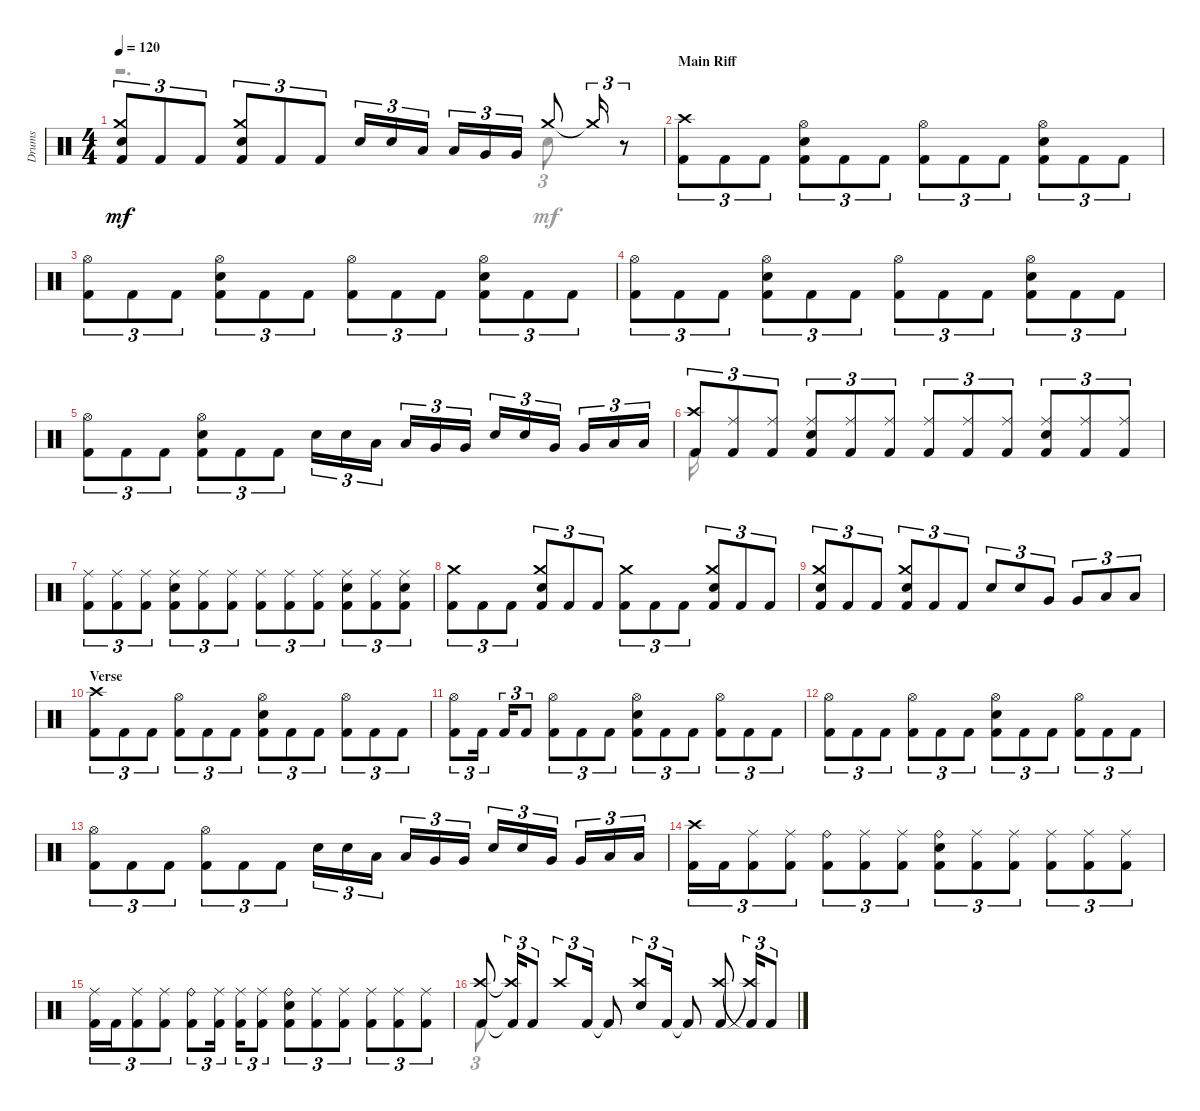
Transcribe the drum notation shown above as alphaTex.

\track ("Drums" "Drums") {instrument percussion}
\staff {score}
\articulation defaults
\voice
\ts (4 4)
\tempo 120
\clef neutral
\ks aminor
("Kick (hit) 2" "Crash medium (hit)" "Snare (hit) 2").8{tu (3 2) dy mf} "Kick (hit) 2".8{tu (3 2)} "Kick (hit) 2".8{tu (3 2)} ("Kick (hit) 2" "Snare (hit) 2" "Crash medium (hit)").8{tu (3 2)} "Kick (hit) 2".8{tu (3 2)} "Kick (hit) 2".8{tu (3 2)} "Snare (hit) 2".16{tu (3 2)} "Snare (hit) 2".16{tu (3 2)} "Low Tom (hit)".16{tu (3 2)} "Low Tom (hit)".16{tu (3 2)} "Very Low Tom (hit)".16{tu (3 2)} "Very Low Tom (hit)".16{tu (3 2)} "Crash medium (hit)".8 "Crash medium (hit)"{t}.16{tu (3 2)} r.8{tu (3 2)} |
\section ("" "Main Riff")
("Kick (hit) 2" "Crash high (hit)").8{tu (3 2)} "Kick (hit) 2".8{tu (3 2)} "Kick (hit) 2".8{tu (3 2)} ("Hi-Hat (open)" "Snare (hit) 2" "Kick (hit) 2").8{tu (3 2)} "Kick (hit) 2".8{tu (3 2)} "Kick (hit) 2".8{tu (3 2)} ("Hi-Hat (open)" "Kick (hit) 2").8{tu (3 2)} "Kick (hit) 2".8{tu (3 2)} "Kick (hit) 2".8{tu (3 2)} ("Kick (hit) 2" "Snare (hit) 2" "Hi-Hat (open)").8{tu (3 2)} "Kick (hit) 2".8{tu (3 2)} "Kick (hit) 2".8{tu (3 2)} |
("Kick (hit) 2" "Hi-Hat (open)").8{tu (3 2)} "Kick (hit) 2".8{tu (3 2)} "Kick (hit) 2".8{tu (3 2)} ("Snare (hit) 2" "Hi-Hat (open)" "Kick (hit) 2").8{tu (3 2)} "Kick (hit) 2".8{tu (3 2)} "Kick (hit) 2".8{tu (3 2)} ("Hi-Hat (open)" "Kick (hit) 2").8{tu (3 2)} "Kick (hit) 2".8{tu (3 2)} "Kick (hit) 2".8{tu (3 2)} ("Hi-Hat (open)" "Snare (hit) 2" "Kick (hit) 2").8{tu (3 2)} "Kick (hit) 2".8{tu (3 2)} "Kick (hit) 2".8{tu (3 2)} |
("Kick (hit) 2" "Hi-Hat (open)").8{tu (3 2)} "Kick (hit) 2".8{tu (3 2)} "Kick (hit) 2".8{tu (3 2)} ("Hi-Hat (open)" "Kick (hit) 2" "Snare (hit) 2").8{tu (3 2)} "Kick (hit) 2".8{tu (3 2)} "Kick (hit) 2".8{tu (3 2)} ("Hi-Hat (open)" "Kick (hit) 2").8{tu (3 2)} "Kick (hit) 2".8{tu (3 2)} "Kick (hit) 2".8{tu (3 2)} ("Kick (hit) 2" "Hi-Hat (open)" "Snare (hit) 2").8{tu (3 2)} "Kick (hit) 2".8{tu (3 2)} "Kick (hit) 2".8{tu (3 2)} |
("Kick (hit) 2" "Hi-Hat (open)").8{tu (3 2)} "Kick (hit) 2".8{tu (3 2)} "Kick (hit) 2".8{tu (3 2)} ("Hi-Hat (open)" "Kick (hit) 2" "Snare (hit) 2").8{tu (3 2)} "Kick (hit) 2".8{tu (3 2)} "Kick (hit) 2".8{tu (3 2)} "Snare (hit) 2".16{tu (3 2)} "Snare (hit) 2".16{tu (3 2)} "Low Tom (hit)".16{tu (3 2)} "Low Tom (hit)".16{tu (3 2)} "Very Low Tom (hit)".16{tu (3 2)} "Very Low Tom (hit)".16{tu (3 2)} "Snare (hit) 2".16{tu (3 2)} "Snare (hit) 2".16{tu (3 2)} "Very Low Tom (hit)".16{tu (3 2)} "Very Low Tom (hit)".16{tu (3 2)} "Low Floor Tom (hit)".16{tu (3 2)} "Low Floor Tom (hit)".16{tu (3 2)} |
("Crash high (hit)" "Kick (hit) 2").8{tu (3 2)} ("Kick (hit) 2" "Ride (middle)").8{tu (3 2)} ("Ride (middle)" "Kick (hit) 2").8{tu (3 2)} ("Snare (hit) 2" "Kick (hit) 2" "Ride (middle)").8{tu (3 2)} ("Kick (hit) 2" "Ride (middle)").8{tu (3 2)} ("Kick (hit) 2" "Ride (middle)").8{tu (3 2)} ("Ride (middle)" "Kick (hit) 2").8{tu (3 2)} ("Ride (middle)" "Kick (hit) 2").8{tu (3 2)} ("Ride (middle)" "Kick (hit) 2").8{tu (3 2)} ("Snare (hit) 2" "Kick (hit) 2" "Ride (middle)").8{tu (3 2)} ("Ride (middle)" "Kick (hit) 2").8{tu (3 2)} ("Ride (middle)" "Kick (hit) 2").8{tu (3 2)} |
("Ride (middle)" "Kick (hit) 2").8{tu (3 2)} ("Kick (hit) 2" "Ride (middle)").8{tu (3 2)} ("Kick (hit) 2" "Ride (middle)").8{tu (3 2)} ("Kick (hit) 2" "Snare (hit) 2" "Ride (middle)").8{tu (3 2)} ("Ride (middle)" "Kick (hit) 2").8{tu (3 2)} ("Kick (hit) 2" "Ride (middle)").8{tu (3 2)} ("Kick (hit) 2" "Ride (middle)").8{tu (3 2)} ("Kick (hit) 2" "Ride (middle)").8{tu (3 2)} ("Kick (hit) 2" "Ride (middle)").8{tu (3 2)} ("Ride (middle)" "Kick (hit) 2" "Snare (hit) 2").8{tu (3 2)} ("Kick (hit) 2" "Ride (middle)").8{tu (3 2)} ("Kick (hit) 2" "Snare (hit) 2" "Ride (middle)").8{tu (3 2)} |
("Crash medium (hit)" "Kick (hit) 2").8{tu (3 2)} "Kick (hit) 2".8{tu (3 2)} "Kick (hit) 2".8{tu (3 2)} ("Kick (hit) 2" "Snare (hit) 2" "Crash medium (hit)").8{tu (3 2)} "Kick (hit) 2".8{tu (3 2)} "Kick (hit) 2".8{tu (3 2)} ("Kick (hit) 2" "Crash medium (hit)").8{tu (3 2)} "Kick (hit) 2".8{tu (3 2)} "Kick (hit) 2".8{tu (3 2)} ("Kick (hit) 2" "Crash medium (hit)" "Snare (hit) 2").8{tu (3 2)} "Kick (hit) 2".8{tu (3 2)} "Kick (hit) 2".8{tu (3 2)} |
("Crash medium (hit)" "Snare (hit) 2" "Kick (hit) 2").8{tu (3 2)} "Kick (hit) 2".8{tu (3 2)} "Kick (hit) 2".8{tu (3 2)} ("Snare (hit) 2" "Kick (hit) 2" "Crash medium (hit)").8{tu (3 2)} "Kick (hit) 2".8{tu (3 2)} "Kick (hit) 2".8{tu (3 2)} "Snare (hit) 2".8{tu (3 2)} "Snare (hit) 2".8{tu (3 2)} "Very Low Tom (hit)".8{tu (3 2)} "Very Low Tom (hit)".8{tu (3 2)} "Low Floor Tom (hit)".8{tu (3 2)} "Low Floor Tom (hit)".8{tu (3 2)} |
\section ("" "Verse")
("Crash high (hit)" "Kick (hit) 2").8{tu (3 2)} "Kick (hit) 2".8{tu (3 2)} "Kick (hit) 2".8{tu (3 2)} ("Hi-Hat (open)" "Kick (hit) 2").8{tu (3 2)} "Kick (hit) 2".8{tu (3 2)} "Kick (hit) 2".8{tu (3 2)} ("Snare (hit) 2" "Kick (hit) 2" "Hi-Hat (open)").8{tu (3 2)} "Kick (hit) 2".8{tu (3 2)} "Kick (hit) 2".8{tu (3 2)} ("Kick (hit) 2" "Hi-Hat (open)").8{tu (3 2)} "Kick (hit) 2".8{tu (3 2)} "Kick (hit) 2".8{tu (3 2)} |
("Kick (hit) 2" "Hi-Hat (open)").8{tu (3 2)} "Kick (hit) 2".16{tu (3 2)} "Kick (hit) 2".16{tu (3 2)} "Kick (hit) 2".8{tu (3 2)} ("Kick (hit) 2" "Hi-Hat (open)").8{tu (3 2)} "Kick (hit) 2".8{tu (3 2)} "Kick (hit) 2".8{tu (3 2)} ("Kick (hit) 2" "Hi-Hat (open)" "Snare (hit) 2").8{tu (3 2)} "Kick (hit) 2".8{tu (3 2)} "Kick (hit) 2".8{tu (3 2)} ("Hi-Hat (open)" "Kick (hit) 2").8{tu (3 2)} "Kick (hit) 2".8{tu (3 2)} "Kick (hit) 2".8{tu (3 2)} |
("Hi-Hat (open)" "Kick (hit) 2").8{tu (3 2)} "Kick (hit) 2".8{tu (3 2)} "Kick (hit) 2".8{tu (3 2)} ("Kick (hit) 2" "Hi-Hat (open)").8{tu (3 2)} "Kick (hit) 2".8{tu (3 2)} "Kick (hit) 2".8{tu (3 2)} ("Hi-Hat (open)" "Snare (hit) 2" "Kick (hit) 2").8{tu (3 2)} "Kick (hit) 2".8{tu (3 2)} "Kick (hit) 2".8{tu (3 2)} ("Kick (hit) 2" "Hi-Hat (open)").8{tu (3 2)} "Kick (hit) 2".8{tu (3 2)} "Kick (hit) 2".8{tu (3 2)} |
("Hi-Hat (open)" "Kick (hit) 2").8{tu (3 2)} "Kick (hit) 2".8{tu (3 2)} "Kick (hit) 2".8{tu (3 2)} ("Kick (hit) 2" "Hi-Hat (open)").8{tu (3 2)} "Kick (hit) 2".8{tu (3 2)} "Kick (hit) 2".8{tu (3 2)} "Snare (hit) 2".16{tu (3 2)} "Snare (hit) 2".16{tu (3 2)} "Low Tom (hit)".16{tu (3 2)} "Low Tom (hit)".16{tu (3 2)} "Very Low Tom (hit)".16{tu (3 2)} "Very Low Tom (hit)".16{tu (3 2)} "Snare (hit) 2".16{tu (3 2)} "Snare (hit) 2".16{tu (3 2)} "Very Low Tom (hit)".16{tu (3 2)} "Very Low Tom (hit)".16{tu (3 2)} "Low Floor Tom (hit)".16{tu (3 2)} "Low Floor Tom (hit)".16{tu (3 2)} |
("Kick (hit) 2" "Crash high (hit)").16{tu (3 2)} "Kick (hit) 2".16{tu (3 2)} ("Kick (hit) 2" "Ride (middle)").8{tu (3 2)} ("Ride (middle)" "Kick (hit) 2").8{tu (3 2)} ("Kick (hit) 2" "Ride (bell)").8{tu (3 2)} ("Kick (hit) 2" "Ride (middle)").8{tu (3 2)} ("Kick (hit) 2" "Ride (middle)").8{tu (3 2)} ("Snare (hit) 2" "Kick (hit) 2" "Ride (bell)").8{tu (3 2)} ("Ride (middle)" "Kick (hit) 2").8{tu (3 2)} ("Ride (middle)" "Kick (hit) 2").8{tu (3 2)} ("Kick (hit) 2" "Ride (middle)").8{tu (3 2)} ("Ride (middle)" "Kick (hit) 2").8{tu (3 2)} ("Ride (middle)" "Kick (hit) 2").8{tu (3 2)} |
("Ride (middle)" "Kick (hit) 2").16{tu (3 2)} "Kick (hit) 2".16{tu (3 2)} ("Ride (middle)" "Kick (hit) 2").8{tu (3 2)} ("Kick (hit) 2" "Ride (middle)").8{tu (3 2)} ("Kick (hit) 2" "Ride (bell)").8{tu (3 2)} ("Ride (middle)" "Kick (hit) 2").16{tu (3 2)} ("Kick (hit) 2" "Ride (middle)").16{tu (3 2)} ("Kick (hit) 2" "Ride (middle)").8{tu (3 2)} ("Ride (bell)" "Kick (hit) 2" "Snare (hit) 2").8{tu (3 2)} ("Ride (middle)" "Kick (hit) 2").8{tu (3 2)} ("Kick (hit) 2" "Ride (middle)").8{tu (3 2)} ("Ride (middle)" "Kick (hit) 2").8{tu (3 2)} ("Kick (hit) 2" "Ride (middle)").8{tu (3 2)} ("Kick (hit) 2" "Ride (middle)").8{tu (3 2)} |
("Crash high (hit)" "Kick (hit) 2").8 ("Crash high (hit)"{t} "Kick (hit) 2"{t}).16{tu (3 2)} "Kick (hit) 2".8{tu (3 2)} "Crash high (hit)".8{tu (3 2)} "Kick (hit) 2".16{tu (3 2)} "Kick (hit) 2"{t}.8 ("Crash high (hit)" "Snare (hit) 2").8{tu (3 2)} "Kick (hit) 2".16{tu (3 2)} "Kick (hit) 2"{t}.8 ("Kick (hit) 2" "Crash high (hit)").8 ("Crash high (hit)"{t} "Kick (hit) 2"{t}).16{tu (3 2)} "Kick (hit) 2".8{tu (3 2)}
\voice
\clef neutral
\ottava regular
\simile none
\ks aminor
r.2{d dy mf} "Snare (hit) 2".8{tu (3 2)} |
|
|
|
|
"Kick (hit) 2".16 |
|
|
|
|
|
|
|
|
|
"Kick (hit) 2".8{tu (3 2)}
